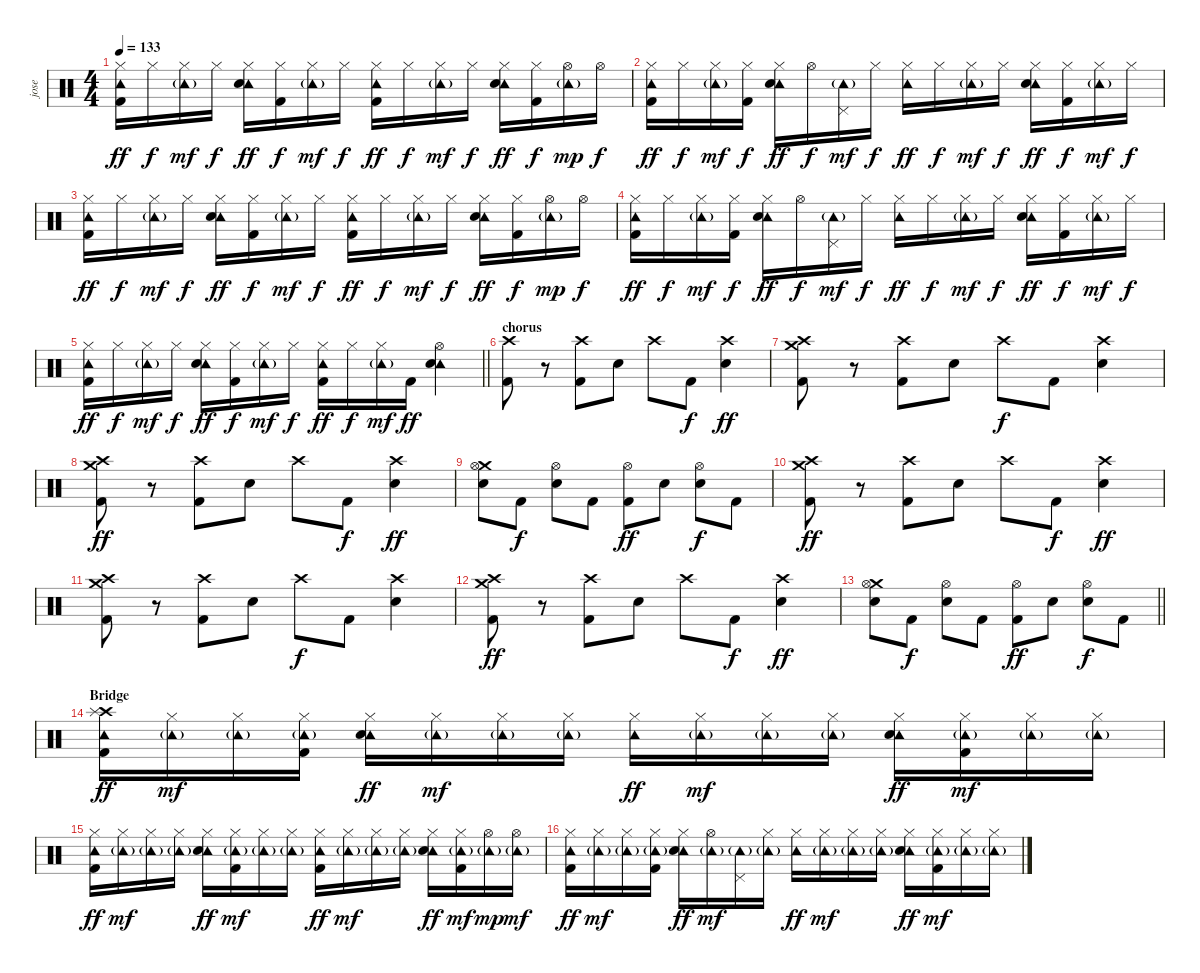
\track ("jose" "jose") {instrument percussion}
\staff {score}
\articulation defaults
\ts (4 4)
\tempo 133
\clef neutral
\ks c
("Tambourine (hit)" "Hi-Hat (closed)" "Kick (hit) 2").16{dy ff} "Hi-Hat (closed)".16{dy f} ("Tambourine (hit)"{g} "Hi-Hat (closed)").16{dy mf} "Hi-Hat (closed)".16{dy f} ("Tambourine (hit)" "Hi-Hat (closed)" "Snare (hit) 2").16{dy ff} ("Hi-Hat (closed)" "Kick (hit) 2").16{dy f} ("Tambourine (hit)"{g} "Hi-Hat (closed)").16{dy mf} "Hi-Hat (closed)".16{dy f} ("Tambourine (hit)" "Hi-Hat (closed)" "Kick (hit) 2").16{dy ff} "Hi-Hat (closed)".16{dy f} ("Tambourine (hit)"{g} "Hi-Hat (closed)").16{dy mf} "Hi-Hat (closed)".16{dy f} ("Tambourine (hit)" "Hi-Hat (closed)" "Snare (hit) 2").16{dy ff} ("Hi-Hat (closed)" "Kick (hit) 2").16{dy f} ("Tambourine (hit)"{g} "Hi-Hat (open)").16{dy mp} "Hi-Hat (open)".16{dy f} |
("Tambourine (hit)" "Hi-Hat (closed)" "Kick (hit) 2").16{dy ff} "Hi-Hat (closed)".16{dy f} ("Tambourine (hit)"{g} "Hi-Hat (closed)").16{dy mf} ("Hi-Hat (closed)" "Kick (hit) 2").16{dy f} ("Tambourine (hit)" "Hi-Hat (closed)" "Snare (hit) 2").16{dy ff} "Hi-Hat (open)".16{dy f} ("Tambourine (hit)"{g} "Pedal Hi-Hat (hit)").16{dy mf} "Hi-Hat (closed)".16{dy f} ("Tambourine (hit)" "Hi-Hat (closed)").16{dy ff} "Hi-Hat (closed)".16{dy f} ("Tambourine (hit)"{g} "Hi-Hat (closed)").16{dy mf} "Hi-Hat (closed)".16{dy f} ("Tambourine (hit)" "Hi-Hat (closed)" "Snare (hit) 2").16{dy ff} ("Hi-Hat (closed)" "Kick (hit) 2").16{dy f} ("Tambourine (hit)"{g} "Hi-Hat (closed)").16{dy mf} "Hi-Hat (closed)".16{dy f} |
("Tambourine (hit)" "Hi-Hat (closed)" "Kick (hit) 2").16{dy ff} "Hi-Hat (closed)".16{dy f} ("Tambourine (hit)"{g} "Hi-Hat (closed)").16{dy mf} "Hi-Hat (closed)".16{dy f} ("Tambourine (hit)" "Hi-Hat (closed)" "Snare (hit) 2").16{dy ff} ("Hi-Hat (closed)" "Kick (hit) 2").16{dy f} ("Tambourine (hit)"{g} "Hi-Hat (closed)").16{dy mf} "Hi-Hat (closed)".16{dy f} ("Tambourine (hit)" "Hi-Hat (closed)" "Kick (hit) 2").16{dy ff} "Hi-Hat (closed)".16{dy f} ("Tambourine (hit)"{g} "Hi-Hat (closed)").16{dy mf} "Hi-Hat (closed)".16{dy f} ("Tambourine (hit)" "Hi-Hat (closed)" "Snare (hit) 2").16{dy ff} ("Hi-Hat (closed)" "Kick (hit) 2").16{dy f} ("Tambourine (hit)"{g} "Hi-Hat (open)").16{dy mp} "Hi-Hat (open)".16{dy f} |
("Tambourine (hit)" "Hi-Hat (closed)" "Kick (hit) 2").16{dy ff} "Hi-Hat (closed)".16{dy f} ("Tambourine (hit)"{g} "Hi-Hat (closed)").16{dy mf} ("Hi-Hat (closed)" "Kick (hit) 2").16{dy f} ("Tambourine (hit)" "Hi-Hat (closed)" "Snare (hit) 2").16{dy ff} "Hi-Hat (open)".16{dy f} ("Tambourine (hit)"{g} "Pedal Hi-Hat (hit)").16{dy mf} "Hi-Hat (closed)".16{dy f} ("Tambourine (hit)" "Hi-Hat (closed)").16{dy ff} "Hi-Hat (closed)".16{dy f} ("Tambourine (hit)"{g} "Hi-Hat (closed)").16{dy mf} "Hi-Hat (closed)".16{dy f} ("Tambourine (hit)" "Hi-Hat (closed)" "Snare (hit) 2").16{dy ff} ("Hi-Hat (closed)" "Kick (hit) 2").16{dy f} ("Tambourine (hit)"{g} "Hi-Hat (closed)").16{dy mf} "Hi-Hat (closed)".16{dy f} |
\barLineRight lightlight
("Tambourine (hit)" "Hi-Hat (closed)" "Kick (hit) 2").16{dy ff} "Hi-Hat (closed)".16{dy f} ("Tambourine (hit)"{g} "Hi-Hat (closed)").16{dy mf} "Hi-Hat (closed)".16{dy f} ("Tambourine (hit)" "Hi-Hat (closed)" "Snare (hit) 2").16{dy ff} ("Hi-Hat (closed)" "Kick (hit) 2").16{dy f} ("Tambourine (hit)"{g} "Hi-Hat (closed)").16{dy mf} "Hi-Hat (closed)".16{dy f} ("Tambourine (hit)" "Hi-Hat (closed)" "Kick (hit) 2").16{dy ff} "Hi-Hat (closed)".16{dy f} ("Tambourine (hit)"{g} "Hi-Hat (closed)").16{dy mf} "Kick (hit) 2".16{dy ff} ("Tambourine (hit)" "Hi-Hat (open)" "Snare (hit) 2").4 |
\section ("" "chorus")
("Crash high (hit)" "Kick (hit) 2").8 r.8 ("Crash high (hit)" "Kick (hit) 2").8 "Snare (hit) 2".8 "Crash high (hit)".8 "Kick (hit) 2".8{dy f} ("Crash high (hit)" "Snare (hit) 2").4{dy ff} |
("Crash high (hit)" "Crash medium (hit)" "Kick (hit) 2").8 r.8 ("Crash high (hit)" "Kick (hit) 2").8 "Snare (hit) 2".8 "Crash high (hit)".8{dy f} "Kick (hit) 2".8 ("Crash high (hit)" "Snare (hit) 2").4 |
("Crash high (hit)" "Crash medium (hit)" "Kick (hit) 2").8{dy ff} r.8 ("Crash high (hit)" "Kick (hit) 2").8 "Snare (hit) 2".8 "Crash high (hit)".8 "Kick (hit) 2".8{dy f} ("Crash high (hit)" "Snare (hit) 2").4{dy ff} |
("Crash medium (hit)" "Hi-Hat (open)" "Snare (hit) 2").8 "Kick (hit) 2".8{dy f} ("Hi-Hat (open)" "Snare (hit) 2").8 "Kick (hit) 2".8 ("Hi-Hat (open)" "Kick (hit) 2").8{dy ff} "Snare (hit) 2".8 ("Hi-Hat (open)" "Snare (hit) 2").8{dy f} "Kick (hit) 2".8 |
("Crash high (hit)" "Crash medium (hit)" "Kick (hit) 2").8{dy ff} r.8 ("Crash high (hit)" "Kick (hit) 2").8 "Snare (hit) 2".8 "Crash high (hit)".8 "Kick (hit) 2".8{dy f} ("Crash high (hit)" "Snare (hit) 2").4{dy ff} |
("Crash high (hit)" "Crash medium (hit)" "Kick (hit) 2").8 r.8 ("Crash high (hit)" "Kick (hit) 2").8 "Snare (hit) 2".8 "Crash high (hit)".8{dy f} "Kick (hit) 2".8 ("Crash high (hit)" "Snare (hit) 2").4 |
("Crash high (hit)" "Crash medium (hit)" "Kick (hit) 2").8{dy ff} r.8 ("Crash high (hit)" "Kick (hit) 2").8 "Snare (hit) 2".8 "Crash high (hit)".8 "Kick (hit) 2".8{dy f} ("Crash high (hit)" "Snare (hit) 2").4{dy ff} |
\barLineRight lightlight
("Crash medium (hit)" "Hi-Hat (open)" "Snare (hit) 2").8 "Kick (hit) 2".8{dy f} ("Hi-Hat (open)" "Snare (hit) 2").8 "Kick (hit) 2".8 ("Hi-Hat (open)" "Kick (hit) 2").8{dy ff} "Snare (hit) 2".8 ("Hi-Hat (open)" "Snare (hit) 2").8{dy f} "Kick (hit) 2".8 |
\section ("" "Bridge")
("Tambourine (hit)" "Crash high (hit)" "Splash (hit)" "Kick (hit) 2").16{dy ff} ("Tambourine (hit)"{g} "Hi-Hat (closed)").16{dy mf} ("Tambourine (hit)"{g} "Hi-Hat (closed)").16 ("Tambourine (hit)"{g} "Hi-Hat (closed)" "Kick (hit) 2").16 ("Tambourine (hit)" "Hi-Hat (closed)" "Snare (hit) 2").16{dy ff} ("Tambourine (hit)"{g} "Hi-Hat (closed)").16{dy mf} ("Tambourine (hit)"{g} "Hi-Hat (closed)").16 ("Tambourine (hit)"{g} "Hi-Hat (closed)").16 ("Tambourine (hit)" "Hi-Hat (closed)").16{dy ff} ("Tambourine (hit)"{g} "Hi-Hat (closed)").16{dy mf} ("Tambourine (hit)"{g} "Hi-Hat (closed)").16 ("Tambourine (hit)"{g} "Hi-Hat (closed)").16 ("Tambourine (hit)" "Hi-Hat (closed)" "Snare (hit) 2").16{dy ff} ("Tambourine (hit)"{g} "Hi-Hat (closed)" "Kick (hit) 2").16{dy mf} ("Tambourine (hit)"{g} "Hi-Hat (closed)").16 ("Tambourine (hit)"{g} "Hi-Hat (closed)").16 |
("Tambourine (hit)" "Hi-Hat (closed)" "Kick (hit) 2").16{dy ff} ("Tambourine (hit)"{g} "Hi-Hat (closed)").16{dy mf} ("Tambourine (hit)"{g} "Hi-Hat (closed)").16 ("Tambourine (hit)"{g} "Hi-Hat (closed)").16 ("Tambourine (hit)" "Hi-Hat (closed)" "Snare (hit) 2").16{dy ff} ("Tambourine (hit)"{g} "Hi-Hat (closed)" "Kick (hit) 2").16{dy mf} ("Tambourine (hit)"{g} "Hi-Hat (closed)").16 ("Tambourine (hit)"{g} "Hi-Hat (closed)").16 ("Tambourine (hit)" "Hi-Hat (closed)" "Kick (hit) 2").16{dy ff} ("Tambourine (hit)"{g} "Hi-Hat (closed)").16{dy mf} ("Tambourine (hit)"{g} "Hi-Hat (closed)").16 ("Tambourine (hit)"{g} "Hi-Hat (closed)").16 ("Tambourine (hit)" "Hi-Hat (closed)" "Snare (hit) 2").16{dy ff} ("Tambourine (hit)"{g} "Hi-Hat (closed)" "Kick (hit) 2").16{dy mf} ("Tambourine (hit)"{g} "Hi-Hat (open)").16{dy mp} ("Tambourine (hit)"{g} "Hi-Hat (open)").16{dy mf} |
("Tambourine (hit)" "Hi-Hat (closed)" "Kick (hit) 2").16{dy ff} ("Tambourine (hit)"{g} "Hi-Hat (closed)").16{dy mf} ("Tambourine (hit)"{g} "Hi-Hat (closed)").16 ("Tambourine (hit)"{g} "Hi-Hat (closed)" "Kick (hit) 2").16 ("Tambourine (hit)" "Hi-Hat (closed)" "Snare (hit) 2").16{dy ff} ("Tambourine (hit)"{g} "Hi-Hat (open)").16{dy mf} ("Tambourine (hit)"{g} "Pedal Hi-Hat (hit)").16 ("Tambourine (hit)"{g} "Hi-Hat (closed)").16 ("Tambourine (hit)" "Hi-Hat (closed)").16{dy ff} ("Tambourine (hit)"{g} "Hi-Hat (closed)").16{dy mf} ("Tambourine (hit)"{g} "Hi-Hat (closed)").16 ("Tambourine (hit)"{g} "Hi-Hat (closed)").16 ("Tambourine (hit)" "Hi-Hat (closed)" "Snare (hit) 2").16{dy ff} ("Tambourine (hit)"{g} "Hi-Hat (closed)" "Kick (hit) 2").16{dy mf} ("Tambourine (hit)"{g} "Hi-Hat (closed)").16 ("Tambourine (hit)"{g} "Hi-Hat (closed)").16
